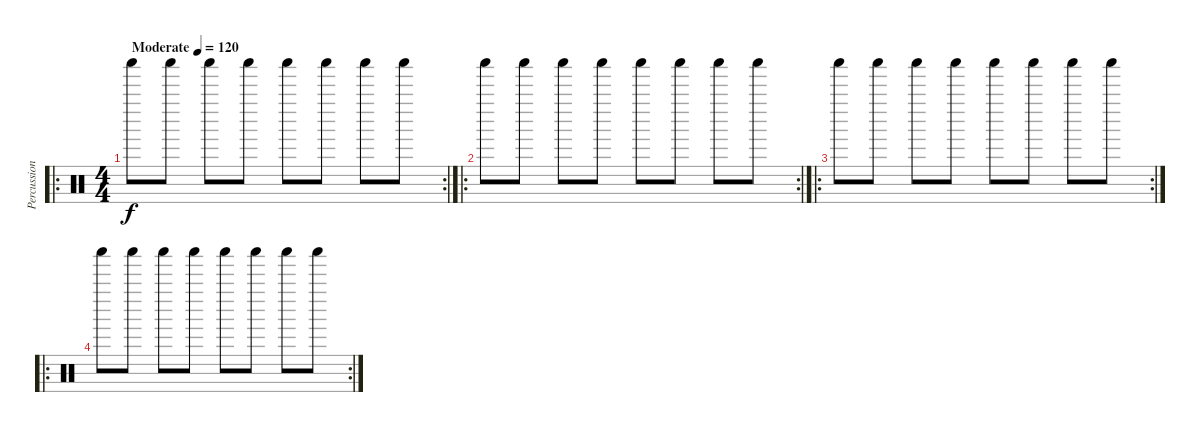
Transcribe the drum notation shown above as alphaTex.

\track ("Percussion" "Percussion") {instrument percussion}
\staff {score}
\articulation defaults
\ro
\rc 2
\ts (4 4)
\tempo (120 "Moderate")
\clef neutral
\ks c "Shaker (hit)".8{dy f} "Shaker (hit)".8 "Shaker (hit)".8 "Shaker (hit)".8 "Shaker (hit)".8 "Shaker (hit)".8 "Shaker (hit)".8 "Shaker (hit)".8
|
\ro
\rc 2 "Shaker (hit)".8 "Shaker (hit)".8 "Shaker (hit)".8 "Shaker (hit)".8 "Shaker (hit)".8 "Shaker (hit)".8 "Shaker (hit)".8 "Shaker (hit)".8
|
\ro
\rc 2 "Shaker (hit)".8 "Shaker (hit)".8 "Shaker (hit)".8 "Shaker (hit)".8 "Shaker (hit)".8 "Shaker (hit)".8 "Shaker (hit)".8 "Shaker (hit)".8
|
\ro
\rc 2 "Shaker (hit)".8 "Shaker (hit)".8 "Shaker (hit)".8 "Shaker (hit)".8 "Shaker (hit)".8 "Shaker (hit)".8 "Shaker (hit)".8 "Shaker (hit)".8
